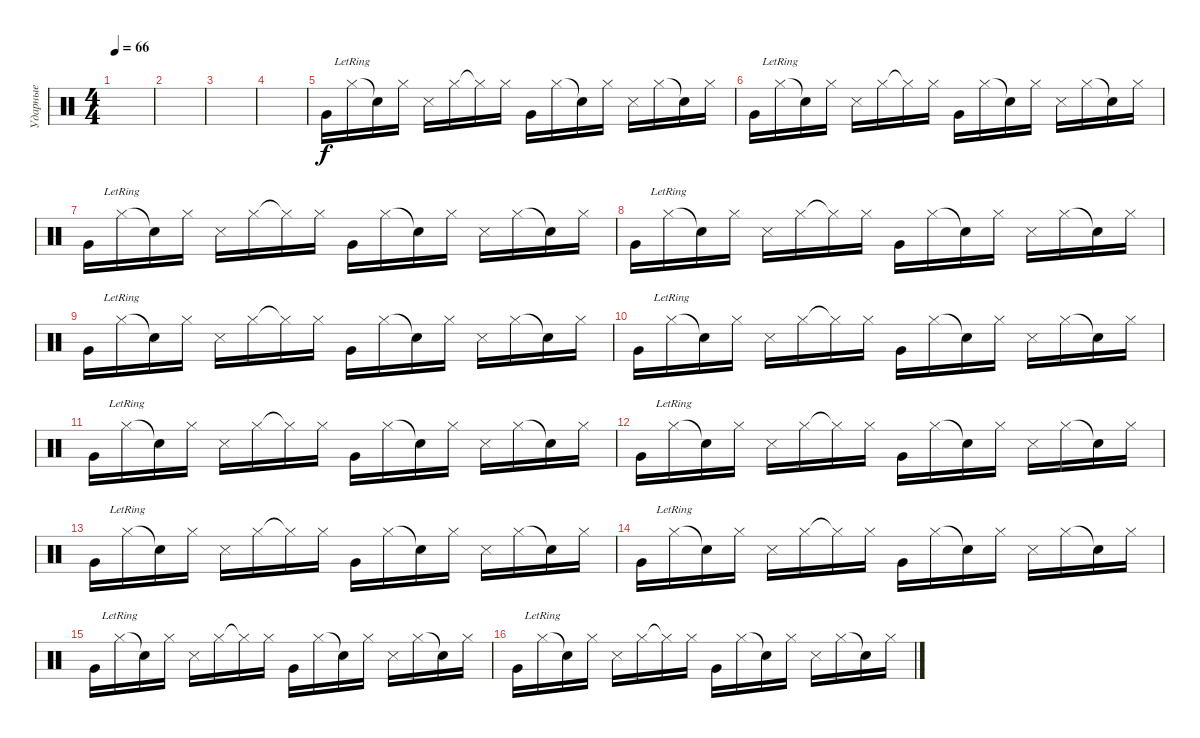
\track ("Ударные" "Ударные") {instrument percussion}
\staff {score}
\articulation defaults
\ts (4 4)
\tempo 66
\clef neutral
\ks c
|
|
|
|
"Very Low Tom (hit)".16 "Hi-Hat (closed)"{lr}.16 "Snare (hit)"{t}.16 "Hi-Hat (closed)".16 "Snare (side stick) 3".16 "Hi-Hat (closed)".16 "Hi-Hat (closed)"{t}.16 "Hi-Hat (closed)".16 "Very Low Tom (hit)".16 "Hi-Hat (closed)".16 "Snare (hit)"{t}.16 "Hi-Hat (closed)".16 "Snare (side stick) 3".16 "Hi-Hat (closed)".16 "Snare (hit)"{t}.16 "Hi-Hat (closed)".16 |
"Very Low Tom (hit)".16 "Hi-Hat (closed)"{lr}.16 "Snare (hit)"{t}.16 "Hi-Hat (closed)".16 "Snare (side stick) 3".16 "Hi-Hat (closed)".16 "Hi-Hat (closed)"{t}.16 "Hi-Hat (closed)".16 "Very Low Tom (hit)".16 "Hi-Hat (closed)".16 "Snare (hit)"{t}.16 "Hi-Hat (closed)".16 "Snare (side stick) 3".16 "Hi-Hat (closed)".16 "Snare (hit)"{t}.16 "Hi-Hat (closed)".16 |
"Very Low Tom (hit)".16 "Hi-Hat (closed)"{lr}.16 "Snare (hit)"{t}.16 "Hi-Hat (closed)".16 "Snare (side stick) 3".16 "Hi-Hat (closed)".16 "Hi-Hat (closed)"{t}.16 "Hi-Hat (closed)".16 "Very Low Tom (hit)".16 "Hi-Hat (closed)".16 "Snare (hit)"{t}.16 "Hi-Hat (closed)".16 "Snare (side stick) 3".16 "Hi-Hat (closed)".16 "Snare (hit)"{t}.16 "Hi-Hat (closed)".16 |
"Very Low Tom (hit)".16 "Hi-Hat (closed)"{lr}.16 "Snare (hit)"{t}.16 "Hi-Hat (closed)".16 "Snare (side stick) 3".16 "Hi-Hat (closed)".16 "Hi-Hat (closed)"{t}.16 "Hi-Hat (closed)".16 "Very Low Tom (hit)".16 "Hi-Hat (closed)".16 "Snare (hit)"{t}.16 "Hi-Hat (closed)".16 "Snare (side stick) 3".16 "Hi-Hat (closed)".16 "Snare (hit)"{t}.16 "Hi-Hat (closed)".16 |
"Very Low Tom (hit)".16 "Hi-Hat (closed)"{lr}.16 "Snare (hit)"{t}.16 "Hi-Hat (closed)".16 "Snare (side stick) 3".16 "Hi-Hat (closed)".16 "Hi-Hat (closed)"{t}.16 "Hi-Hat (closed)".16 "Very Low Tom (hit)".16 "Hi-Hat (closed)".16 "Snare (hit)"{t}.16 "Hi-Hat (closed)".16 "Snare (side stick) 3".16 "Hi-Hat (closed)".16 "Snare (hit)"{t}.16 "Hi-Hat (closed)".16 |
"Very Low Tom (hit)".16 "Hi-Hat (closed)"{lr}.16 "Snare (hit)"{t}.16 "Hi-Hat (closed)".16 "Snare (side stick) 3".16 "Hi-Hat (closed)".16 "Hi-Hat (closed)"{t}.16 "Hi-Hat (closed)".16 "Very Low Tom (hit)".16 "Hi-Hat (closed)".16 "Snare (hit)"{t}.16 "Hi-Hat (closed)".16 "Snare (side stick) 3".16 "Hi-Hat (closed)".16 "Snare (hit)"{t}.16 "Hi-Hat (closed)".16 |
"Very Low Tom (hit)".16 "Hi-Hat (closed)"{lr}.16 "Snare (hit)"{t}.16 "Hi-Hat (closed)".16 "Snare (side stick) 3".16 "Hi-Hat (closed)".16 "Hi-Hat (closed)"{t}.16 "Hi-Hat (closed)".16 "Very Low Tom (hit)".16 "Hi-Hat (closed)".16 "Snare (hit)"{t}.16 "Hi-Hat (closed)".16 "Snare (side stick) 3".16 "Hi-Hat (closed)".16 "Snare (hit)"{t}.16 "Hi-Hat (closed)".16 |
"Very Low Tom (hit)".16 "Hi-Hat (closed)"{lr}.16 "Snare (hit)"{t}.16 "Hi-Hat (closed)".16 "Snare (side stick) 3".16 "Hi-Hat (closed)".16 "Hi-Hat (closed)"{t}.16 "Hi-Hat (closed)".16 "Very Low Tom (hit)".16 "Hi-Hat (closed)".16 "Snare (hit)"{t}.16 "Hi-Hat (closed)".16 "Snare (side stick) 3".16 "Hi-Hat (closed)".16 "Snare (hit)"{t}.16 "Hi-Hat (closed)".16 |
"Very Low Tom (hit)".16 "Hi-Hat (closed)"{lr}.16 "Snare (hit)"{t}.16 "Hi-Hat (closed)".16 "Snare (side stick) 3".16 "Hi-Hat (closed)".16 "Hi-Hat (closed)"{t}.16 "Hi-Hat (closed)".16 "Very Low Tom (hit)".16 "Hi-Hat (closed)".16 "Snare (hit)"{t}.16 "Hi-Hat (closed)".16 "Snare (side stick) 3".16 "Hi-Hat (closed)".16 "Snare (hit)"{t}.16 "Hi-Hat (closed)".16 |
"Very Low Tom (hit)".16 "Hi-Hat (closed)"{lr}.16 "Snare (hit)"{t}.16 "Hi-Hat (closed)".16 "Snare (side stick) 3".16 "Hi-Hat (closed)".16 "Hi-Hat (closed)"{t}.16 "Hi-Hat (closed)".16 "Very Low Tom (hit)".16 "Hi-Hat (closed)".16 "Snare (hit)"{t}.16 "Hi-Hat (closed)".16 "Snare (side stick) 3".16 "Hi-Hat (closed)".16 "Snare (hit)"{t}.16 "Hi-Hat (closed)".16 |
"Very Low Tom (hit)".16 "Hi-Hat (closed)"{lr}.16 "Snare (hit)"{t}.16 "Hi-Hat (closed)".16 "Snare (side stick) 3".16 "Hi-Hat (closed)".16 "Hi-Hat (closed)"{t}.16 "Hi-Hat (closed)".16 "Very Low Tom (hit)".16 "Hi-Hat (closed)".16 "Snare (hit)"{t}.16 "Hi-Hat (closed)".16 "Snare (side stick) 3".16 "Hi-Hat (closed)".16 "Snare (hit)"{t}.16 "Hi-Hat (closed)".16 |
"Very Low Tom (hit)".16 "Hi-Hat (closed)"{lr}.16 "Snare (hit)"{t}.16 "Hi-Hat (closed)".16 "Snare (side stick) 3".16 "Hi-Hat (closed)".16 "Hi-Hat (closed)"{t}.16 "Hi-Hat (closed)".16 "Very Low Tom (hit)".16 "Hi-Hat (closed)".16 "Snare (hit)"{t}.16 "Hi-Hat (closed)".16 "Snare (side stick) 3".16 "Hi-Hat (closed)".16 "Snare (hit)"{t}.16 "Hi-Hat (closed)".16
